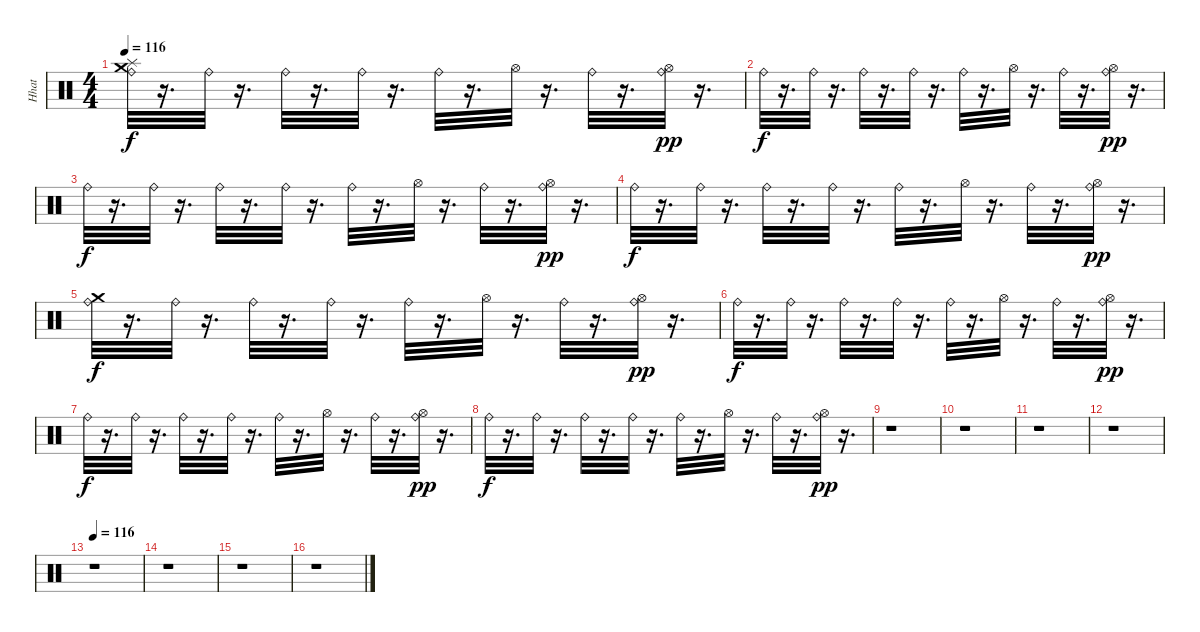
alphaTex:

\track ("Hhat" "Hhat") {instrument percussion}
\staff {score}
\articulation defaults
\ts (4 4)
\tempo 116
\clef neutral
\ks c
("Splash (hit)" "Crash medium (hit)" "Ride (bell)").32{dy f} r.16{d} "Ride (bell)".32 r.16{d} "Ride (bell)".32 r.16{d} "Ride (bell)".32 r.16{d} "Ride (bell)".32 r.16{d} "Hi-Hat (open)".32 r.16{d} "Ride (bell)".32 r.16{d} ("Hi-Hat (open)" "Ride (bell)").32{dy pp} r.16{d} |
"Ride (bell)".32{dy f} r.16{d} "Ride (bell)".32 r.16{d} "Ride (bell)".32 r.16{d} "Ride (bell)".32 r.16{d} "Ride (bell)".32 r.16{d} "Hi-Hat (open)".32 r.16{d} "Ride (bell)".32 r.16{d} ("Ride (bell)" "Hi-Hat (open)").32{dy pp} r.16{d} |
"Ride (bell)".32{dy f} r.16{d} "Ride (bell)".32 r.16{d} "Ride (bell)".32 r.16{d} "Ride (bell)".32 r.16{d} "Ride (bell)".32 r.16{d} "Hi-Hat (open)".32 r.16{d} "Ride (bell)".32 r.16{d} ("Ride (bell)" "Hi-Hat (open)").32{dy pp} r.16{d} |
"Ride (bell)".32{dy f} r.16{d} "Ride (bell)".32 r.16{d} "Ride (bell)".32 r.16{d} "Ride (bell)".32 r.16{d} "Ride (bell)".32 r.16{d} "Hi-Hat (open)".32 r.16{d} "Ride (bell)".32 r.16{d} ("Ride (bell)" "Hi-Hat (open)").32{dy pp} r.16{d} |
("Crash medium (hit)" "Ride (bell)").32{dy f} r.16{d} "Ride (bell)".32 r.16{d} "Ride (bell)".32 r.16{d} "Ride (bell)".32 r.16{d} "Ride (bell)".32 r.16{d} "Hi-Hat (open)".32 r.16{d} "Ride (bell)".32 r.16{d} ("Hi-Hat (open)" "Ride (bell)").32{dy pp} r.16{d} |
"Ride (bell)".32{dy f} r.16{d} "Ride (bell)".32 r.16{d} "Ride (bell)".32 r.16{d} "Ride (bell)".32 r.16{d} "Ride (bell)".32 r.16{d} "Hi-Hat (open)".32 r.16{d} "Ride (bell)".32 r.16{d} ("Ride (bell)" "Hi-Hat (open)").32{dy pp} r.16{d} |
"Ride (bell)".32{dy f} r.16{d} "Ride (bell)".32 r.16{d} "Ride (bell)".32 r.16{d} "Ride (bell)".32 r.16{d} "Ride (bell)".32 r.16{d} "Hi-Hat (open)".32 r.16{d} "Ride (bell)".32 r.16{d} ("Ride (bell)" "Hi-Hat (open)").32{dy pp} r.16{d} |
"Ride (bell)".32{dy f} r.16{d} "Ride (bell)".32 r.16{d} "Ride (bell)".32 r.16{d} "Ride (bell)".32 r.16{d} "Ride (bell)".32 r.16{d} "Hi-Hat (open)".32 r.16{d} "Ride (bell)".32 r.16{d} ("Ride (bell)" "Hi-Hat (open)").32{dy pp} r.16{d} |
r.1 |
r.1 |
r.1 |
r.1 |
\tempo 116
r.1 |
r.1 |
r.1 |
r.1
